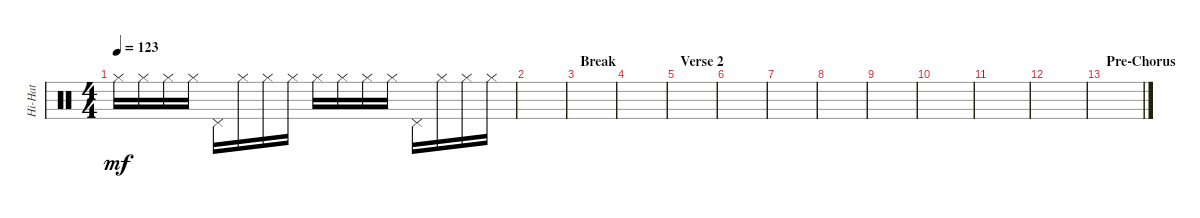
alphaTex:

\track ("Hi-Hat" "Hi-Hat") {instrument percussion}
\staff {score}
\articulation defaults
\ts (4 4)
\tempo 123
\clef neutral
\ks c "Hi-Hat (closed)".16{dy mf} "Hi-Hat (closed)".16 "Hi-Hat (closed)".16 "Hi-Hat (closed)".16 "Pedal Hi-Hat (hit)".16 "Hi-Hat (closed)".16 "Hi-Hat (closed)".16 "Hi-Hat (closed)".16 "Hi-Hat (closed)".16 "Hi-Hat (closed)".16 "Hi-Hat (closed)".16 "Hi-Hat (closed)".16 "Pedal Hi-Hat (hit)".16 "Hi-Hat (closed)".16 "Hi-Hat (closed)".16 "Hi-Hat (closed)".16
|
|
\section ("" "Break")
|
|
\section ("" "Verse 2")
|
|
|
|
|
|
|
|
\section ("" "Pre-Chorus")
